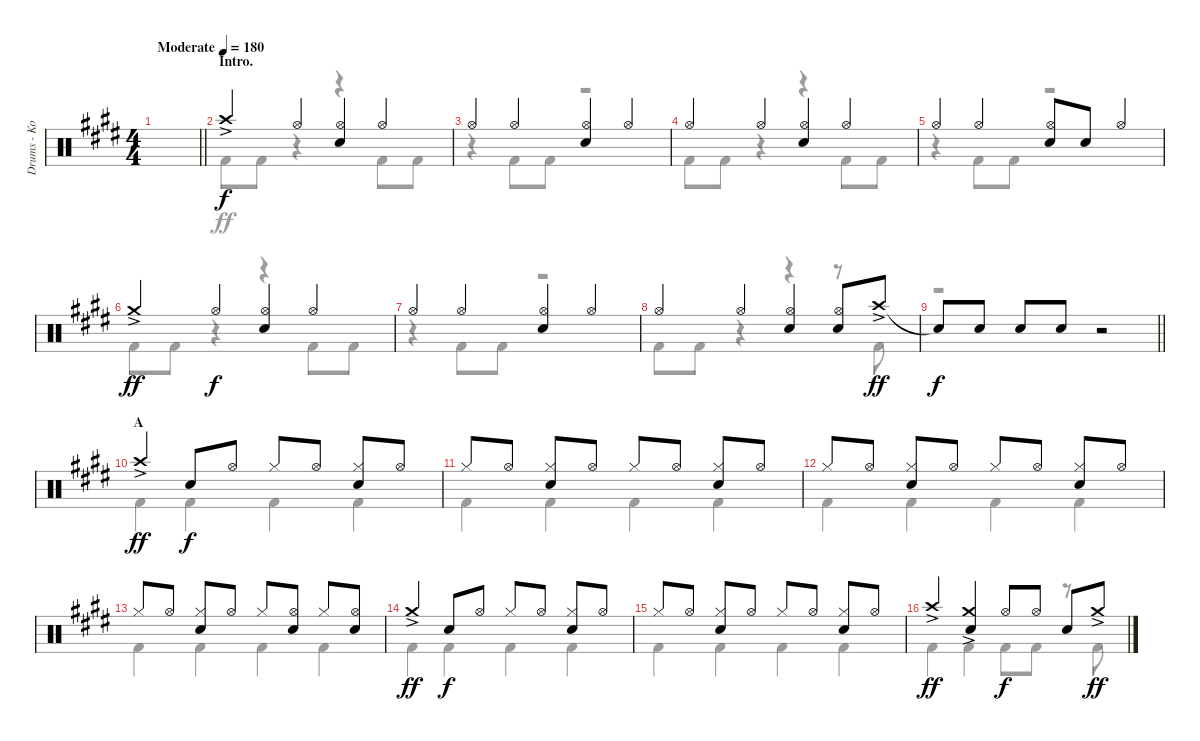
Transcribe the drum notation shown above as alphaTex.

\track ("Drums - Ko-Ki" "Drums - Ko") {instrument percussion}
\staff {score}
\articulation defaults
\voice
\ts (4 4)
\tempo (180 "Moderate")
\clef neutral
\barLineRight lightlight
\ks e
|
\section ("" "Intro.")
"Crash high (hit)"{ac}.4 "Hi-Hat (open)".4{dy f} ("Hi-Hat (open)" "Snare (hit) 2").4 "Hi-Hat (open)".4 |
"Hi-Hat (open)".4 "Hi-Hat (open)".4 ("Hi-Hat (open)" "Snare (hit) 2").4 "Hi-Hat (open)".4 |
"Hi-Hat (open)".4 "Hi-Hat (open)".4 ("Hi-Hat (open)" "Snare (hit) 2").4 "Hi-Hat (open)".4 |
"Hi-Hat (open)".4 "Hi-Hat (open)".4 ("Hi-Hat (open)" "Snare (hit) 2").8 "Snare (hit) 2".8 "Hi-Hat (open)".4 |
"Crash medium (hit)"{ac}.4{dy ff} "Hi-Hat (open)".4{dy f} ("Hi-Hat (open)" "Snare (hit) 2").4 "Hi-Hat (open)".4 |
"Hi-Hat (open)".4 "Hi-Hat (open)".4 ("Hi-Hat (open)" "Snare (hit) 2").4 "Hi-Hat (open)".4 |
"Hi-Hat (open)".4 "Hi-Hat (open)".4 ("Hi-Hat (open)" "Snare (hit) 2").4 ("Hi-Hat (open)" "Snare (hit) 2").8 "Crash high (hit)"{ac}.8{dy ff} |
\barLineRight lightlight "Snare (hit)"{t}.8{dy f} "Snare (hit) 2".8 "Snare (hit) 2".8 "Snare (hit) 2".8
r.2 |
\section ("" "A")
"Crash high (hit)"{ac}.4{dy ff} "Snare (hit) 2".8{dy f} "Hi-Hat (open)".8 "Hi-Hat (closed)".8 "Hi-Hat (open)".8 ("Hi-Hat (closed)" "Snare (hit) 2").8 "Hi-Hat (open)".8 |
"Hi-Hat (closed)".8 "Hi-Hat (open)".8 ("Hi-Hat (closed)" "Snare (hit) 2").8 "Hi-Hat (open)".8 "Hi-Hat (closed)".8 "Hi-Hat (open)".8 ("Hi-Hat (closed)" "Snare (hit) 2").8 "Hi-Hat (open)".8 |
"Hi-Hat (closed)".8 "Hi-Hat (open)".8 ("Hi-Hat (closed)" "Snare (hit) 2").8 "Hi-Hat (open)".8 "Hi-Hat (closed)".8 "Hi-Hat (open)".8 ("Hi-Hat (closed)" "Snare (hit) 2").8 "Hi-Hat (open)".8 |
"Hi-Hat (closed)".8 "Hi-Hat (open)".8 ("Hi-Hat (closed)" "Snare (hit) 2").8 "Hi-Hat (open)".8 "Hi-Hat (closed)".8 ("Hi-Hat (open)" "Snare (hit) 2").8 "Hi-Hat (closed)".8 ("Hi-Hat (open)" "Snare (hit) 2").8 |
"Crash medium (hit)"{ac}.4{dy ff} "Snare (hit) 2".8{dy f} "Hi-Hat (open)".8 "Hi-Hat (closed)".8 "Hi-Hat (open)".8 ("Hi-Hat (closed)" "Snare (hit) 2").8 "Hi-Hat (open)".8 |
"Hi-Hat (closed)".8 "Hi-Hat (open)".8 ("Hi-Hat (closed)" "Snare (hit) 2").8 "Hi-Hat (open)".8 "Hi-Hat (closed)".8 "Hi-Hat (open)".8 ("Hi-Hat (closed)" "Snare (hit) 2").8 "Hi-Hat (open)".8 |
"Crash high (hit)"{ac}.4{dy ff} ("Crash medium (hit)"{ac} "Snare (hit) 2").4 "Hi-Hat (open)".8{dy f} "Hi-Hat (open)".8 "Snare (hit) 2".8 "Crash medium (hit)"{ac}.8{dy ff}
\voice
\clef neutral
\ottava regular
\simile none
\barLineRight lightlight
\ks e
|
"Kick (hit) 2".8 "Kick (hit) 2".8 r.4 r.4 "Kick (hit) 2".8 "Kick (hit) 2".8 |
r.4 "Kick (hit) 2".8 "Kick (hit) 2".8 r.2 |
"Kick (hit) 2".8 "Kick (hit) 2".8 r.4 r.4 "Kick (hit) 2".8 "Kick (hit) 2".8 |
r.4 "Kick (hit) 2".8 "Kick (hit) 2".8 r.2 |
"Kick (hit) 2".8 "Kick (hit) 2".8 r.4 r.4 "Kick (hit) 2".8 "Kick (hit) 2".8 |
r.4 "Kick (hit) 2".8 "Kick (hit) 2".8 r.2 |
"Kick (hit) 2".8 "Kick (hit) 2".8 r.4 r.4 r.8 "Kick (hit) 2".8 |
\barLineRight lightlight
r.1 |
"Kick (hit) 2".4 "Kick (hit) 2".4 "Kick (hit) 2".4 "Kick (hit) 2".4 |
"Kick (hit) 2".4 "Kick (hit) 2".4 "Kick (hit) 2".4 "Kick (hit) 2".4 |
"Kick (hit) 2".4 "Kick (hit) 2".4 "Kick (hit) 2".4 "Kick (hit) 2".4 |
"Kick (hit) 2".4 "Kick (hit) 2".4 "Kick (hit) 2".4 "Kick (hit) 2".4 |
"Kick (hit) 2".4 "Kick (hit) 2".4 "Kick (hit) 2".4 "Kick (hit) 2".4 |
"Kick (hit) 2".4 "Kick (hit) 2".4 "Kick (hit) 2".4 "Kick (hit) 2".4 |
"Kick (hit) 2".4 "Kick (hit) 2".4 "Kick (hit) 2".8 "Kick (hit) 2".8 r.8 "Kick (hit) 2".8
